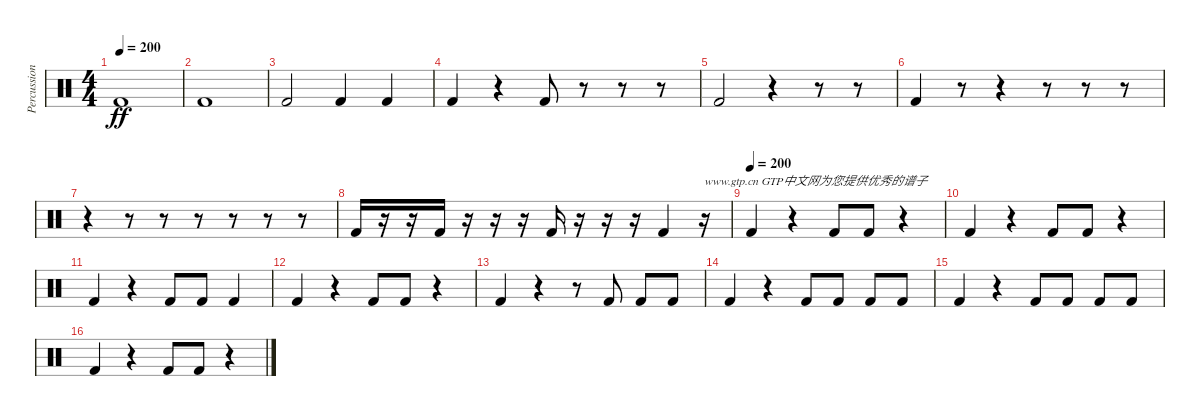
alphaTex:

\track ("Percussions 2" "Percussion") {instrument percussion}
\staff {score}
\articulation defaults
\ts (4 4)
\tempo 200
\clef neutral
\ks c "Kick (hit) 2".1{dy ff}
|
"Kick (hit) 2".1 |
"Kick (hit) 2".2 "Kick (hit) 2".4 "Kick (hit) 2".4 |
"Kick (hit) 2".4 r.4 "Kick (hit) 2".8 r.8 r.8 r.8 |
"Kick (hit) 2".2 r.4 r.8 r.8 |
"Kick (hit) 2".4 r.8 r.4 r.8 r.8 r.8 |
r.4 r.8 r.8 r.8 r.8 r.8 r.8 |
"Kick (hit) 2".16 r.16 r.16 "Kick (hit) 2".16 r.16 r.16 r.16 "Kick (hit) 2".16 r.16 r.16 r.16 "Kick (hit) 2".4 r.16{txt "www.gtp.cn GTP中文网为您提供优秀的谱子"} |
\tempo (200)
"Kick (hit) 2".4 r.4 "Kick (hit) 2".8 "Kick (hit) 2".8 r.4 |
"Kick (hit) 2".4 r.4 "Kick (hit) 2".8 "Kick (hit) 2".8 r.4 |
"Kick (hit) 2".4 r.4 "Kick (hit) 2".8 "Kick (hit) 2".8 "Kick (hit) 2".4 |
"Kick (hit) 2".4 r.4 "Kick (hit) 2".8 "Kick (hit) 2".8 r.4 |
"Kick (hit) 2".4 r.4 r.8 "Kick (hit) 2".8 "Kick (hit) 2".8 "Kick (hit) 2".8 |
"Kick (hit) 2".4 r.4 "Kick (hit) 2".8 "Kick (hit) 2".8 "Kick (hit) 2".8 "Kick (hit) 2".8 |
"Kick (hit) 2".4 r.4 "Kick (hit) 2".8 "Kick (hit) 2".8 "Kick (hit) 2".8 "Kick (hit) 2".8 |
"Kick (hit) 2".4 r.4 "Kick (hit) 2".8 "Kick (hit) 2".8 r.4
